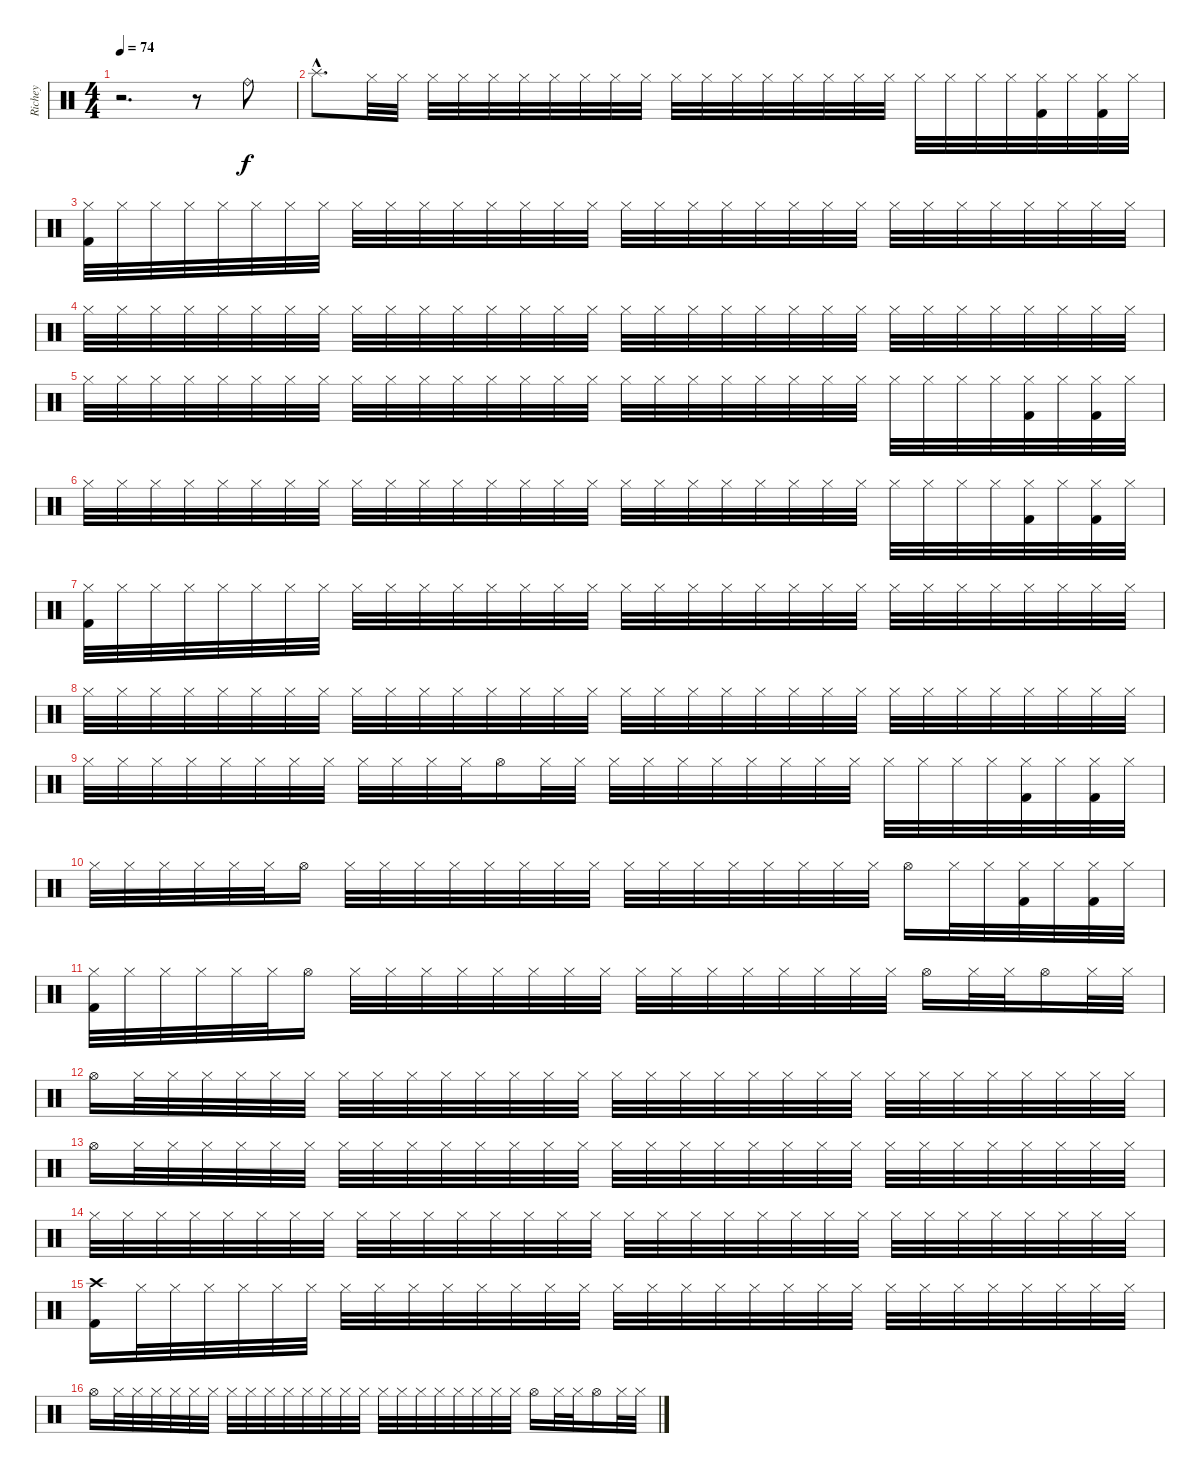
\track ("Richey" "Richey") {instrument percussion}
\staff {score}
\articulation defaults
\ts (4 4)
\tempo 74
\tempo 88
\tempo 74
\clef neutral
\ks c
r.2{d dy f} r.8 "Ride (bell)".8 |
"Splash (hit)"{hac}.8{d} "Hi-Hat (closed)".32 "Hi-Hat (closed)".32 "Hi-Hat (closed)".32 "Hi-Hat (closed)".32 "Hi-Hat (closed)".32 "Hi-Hat (closed)".32 "Hi-Hat (closed)".32 "Hi-Hat (closed)".32 "Hi-Hat (closed)".32 "Hi-Hat (closed)".32 "Hi-Hat (closed)".32 "Hi-Hat (closed)".32 "Hi-Hat (closed)".32 "Hi-Hat (closed)".32 "Hi-Hat (closed)".32 "Hi-Hat (closed)".32 "Hi-Hat (closed)".32 "Hi-Hat (closed)".32 "Hi-Hat (closed)".32 "Hi-Hat (closed)".32 "Hi-Hat (closed)".32 "Hi-Hat (closed)".32 ("Hi-Hat (closed)" "Kick (hit) 2").32 "Hi-Hat (closed)".32 ("Hi-Hat (closed)" "Kick (hit) 2").32 "Hi-Hat (closed)".32 |
("Hi-Hat (closed)" "Kick (hit) 2").32 "Hi-Hat (closed)".32 "Hi-Hat (closed)".32 "Hi-Hat (closed)".32 "Hi-Hat (closed)".32 "Hi-Hat (closed)".32 "Hi-Hat (closed)".32 "Hi-Hat (closed)".32 "Hi-Hat (closed)".32 "Hi-Hat (closed)".32 "Hi-Hat (closed)".32 "Hi-Hat (closed)".32 "Hi-Hat (closed)".32 "Hi-Hat (closed)".32 "Hi-Hat (closed)".32 "Hi-Hat (closed)".32 "Hi-Hat (closed)".32 "Hi-Hat (closed)".32 "Hi-Hat (closed)".32 "Hi-Hat (closed)".32 "Hi-Hat (closed)".32 "Hi-Hat (closed)".32 "Hi-Hat (closed)".32 "Hi-Hat (closed)".32 "Hi-Hat (closed)".32 "Hi-Hat (closed)".32 "Hi-Hat (closed)".32 "Hi-Hat (closed)".32 "Hi-Hat (closed)".32 "Hi-Hat (closed)".32 "Hi-Hat (closed)".32 "Hi-Hat (closed)".32 |
"Hi-Hat (closed)".32 "Hi-Hat (closed)".32 "Hi-Hat (closed)".32 "Hi-Hat (closed)".32 "Hi-Hat (closed)".32 "Hi-Hat (closed)".32 "Hi-Hat (closed)".32 "Hi-Hat (closed)".32 "Hi-Hat (closed)".32 "Hi-Hat (closed)".32 "Hi-Hat (closed)".32 "Hi-Hat (closed)".32 "Hi-Hat (closed)".32 "Hi-Hat (closed)".32 "Hi-Hat (closed)".32 "Hi-Hat (closed)".32 "Hi-Hat (closed)".32 "Hi-Hat (closed)".32 "Hi-Hat (closed)".32 "Hi-Hat (closed)".32 "Hi-Hat (closed)".32 "Hi-Hat (closed)".32 "Hi-Hat (closed)".32 "Hi-Hat (closed)".32 "Hi-Hat (closed)".32 "Hi-Hat (closed)".32 "Hi-Hat (closed)".32 "Hi-Hat (closed)".32 "Hi-Hat (closed)".32 "Hi-Hat (closed)".32 "Hi-Hat (closed)".32 "Hi-Hat (closed)".32 |
"Hi-Hat (closed)".32 "Hi-Hat (closed)".32 "Hi-Hat (closed)".32 "Hi-Hat (closed)".32 "Hi-Hat (closed)".32 "Hi-Hat (closed)".32 "Hi-Hat (closed)".32 "Hi-Hat (closed)".32 "Hi-Hat (closed)".32 "Hi-Hat (closed)".32 "Hi-Hat (closed)".32 "Hi-Hat (closed)".32 "Hi-Hat (closed)".32 "Hi-Hat (closed)".32 "Hi-Hat (closed)".32 "Hi-Hat (closed)".32 "Hi-Hat (closed)".32 "Hi-Hat (closed)".32 "Hi-Hat (closed)".32 "Hi-Hat (closed)".32 "Hi-Hat (closed)".32 "Hi-Hat (closed)".32 "Hi-Hat (closed)".32 "Hi-Hat (closed)".32 "Hi-Hat (closed)".32 "Hi-Hat (closed)".32 "Hi-Hat (closed)".32 "Hi-Hat (closed)".32 ("Hi-Hat (closed)" "Kick (hit) 2").32 "Hi-Hat (closed)".32 ("Hi-Hat (closed)" "Kick (hit) 2").32 "Hi-Hat (closed)".32 |
"Hi-Hat (closed)".32 "Hi-Hat (closed)".32 "Hi-Hat (closed)".32 "Hi-Hat (closed)".32 "Hi-Hat (closed)".32 "Hi-Hat (closed)".32 "Hi-Hat (closed)".32 "Hi-Hat (closed)".32 "Hi-Hat (closed)".32 "Hi-Hat (closed)".32 "Hi-Hat (closed)".32 "Hi-Hat (closed)".32 "Hi-Hat (closed)".32 "Hi-Hat (closed)".32 "Hi-Hat (closed)".32 "Hi-Hat (closed)".32 "Hi-Hat (closed)".32 "Hi-Hat (closed)".32 "Hi-Hat (closed)".32 "Hi-Hat (closed)".32 "Hi-Hat (closed)".32 "Hi-Hat (closed)".32 "Hi-Hat (closed)".32 "Hi-Hat (closed)".32 "Hi-Hat (closed)".32 "Hi-Hat (closed)".32 "Hi-Hat (closed)".32 "Hi-Hat (closed)".32 ("Hi-Hat (closed)" "Kick (hit) 2").32 "Hi-Hat (closed)".32 ("Hi-Hat (closed)" "Kick (hit) 2").32 "Hi-Hat (closed)".32 |
("Hi-Hat (closed)" "Kick (hit) 2").32 "Hi-Hat (closed)".32 "Hi-Hat (closed)".32 "Hi-Hat (closed)".32 "Hi-Hat (closed)".32 "Hi-Hat (closed)".32 "Hi-Hat (closed)".32 "Hi-Hat (closed)".32 "Hi-Hat (closed)".32 "Hi-Hat (closed)".32 "Hi-Hat (closed)".32 "Hi-Hat (closed)".32 "Hi-Hat (closed)".32 "Hi-Hat (closed)".32 "Hi-Hat (closed)".32 "Hi-Hat (closed)".32 "Hi-Hat (closed)".32 "Hi-Hat (closed)".32 "Hi-Hat (closed)".32 "Hi-Hat (closed)".32 "Hi-Hat (closed)".32 "Hi-Hat (closed)".32 "Hi-Hat (closed)".32 "Hi-Hat (closed)".32 "Hi-Hat (closed)".32 "Hi-Hat (closed)".32 "Hi-Hat (closed)".32 "Hi-Hat (closed)".32 "Hi-Hat (closed)".32 "Hi-Hat (closed)".32 "Hi-Hat (closed)".32 "Hi-Hat (closed)".32 |
"Hi-Hat (closed)".32 "Hi-Hat (closed)".32 "Hi-Hat (closed)".32 "Hi-Hat (closed)".32 "Hi-Hat (closed)".32 "Hi-Hat (closed)".32 "Hi-Hat (closed)".32 "Hi-Hat (closed)".32 "Hi-Hat (closed)".32 "Hi-Hat (closed)".32 "Hi-Hat (closed)".32 "Hi-Hat (closed)".32 "Hi-Hat (closed)".32 "Hi-Hat (closed)".32 "Hi-Hat (closed)".32 "Hi-Hat (closed)".32 "Hi-Hat (closed)".32 "Hi-Hat (closed)".32 "Hi-Hat (closed)".32 "Hi-Hat (closed)".32 "Hi-Hat (closed)".32 "Hi-Hat (closed)".32 "Hi-Hat (closed)".32 "Hi-Hat (closed)".32 "Hi-Hat (closed)".32 "Hi-Hat (closed)".32 "Hi-Hat (closed)".32 "Hi-Hat (closed)".32 "Hi-Hat (closed)".32 "Hi-Hat (closed)".32 "Hi-Hat (closed)".32 "Hi-Hat (closed)".32 |
"Hi-Hat (closed)".32 "Hi-Hat (closed)".32 "Hi-Hat (closed)".32 "Hi-Hat (closed)".32 "Hi-Hat (closed)".32 "Hi-Hat (closed)".32 "Hi-Hat (closed)".32 "Hi-Hat (closed)".32 "Hi-Hat (closed)".32 "Hi-Hat (closed)".32 "Hi-Hat (closed)".32 "Hi-Hat (closed)".32 "Hi-Hat (open)".16 "Hi-Hat (closed)".32 "Hi-Hat (closed)".32 "Hi-Hat (closed)".32 "Hi-Hat (closed)".32 "Hi-Hat (closed)".32 "Hi-Hat (closed)".32 "Hi-Hat (closed)".32 "Hi-Hat (closed)".32 "Hi-Hat (closed)".32 "Hi-Hat (closed)".32 "Hi-Hat (closed)".32 "Hi-Hat (closed)".32 "Hi-Hat (closed)".32 "Hi-Hat (closed)".32 ("Hi-Hat (closed)" "Kick (hit) 2").32 "Hi-Hat (closed)".32 ("Hi-Hat (closed)" "Kick (hit) 2").32 "Hi-Hat (closed)".32 |
"Hi-Hat (closed)".32 "Hi-Hat (closed)".32 "Hi-Hat (closed)".32 "Hi-Hat (closed)".32 "Hi-Hat (closed)".32 "Hi-Hat (closed)".32 "Hi-Hat (open)".16 "Hi-Hat (closed)".32 "Hi-Hat (closed)".32 "Hi-Hat (closed)".32 "Hi-Hat (closed)".32 "Hi-Hat (closed)".32 "Hi-Hat (closed)".32 "Hi-Hat (closed)".32 "Hi-Hat (closed)".32 "Hi-Hat (closed)".32 "Hi-Hat (closed)".32 "Hi-Hat (closed)".32 "Hi-Hat (closed)".32 "Hi-Hat (closed)".32 "Hi-Hat (closed)".32 "Hi-Hat (closed)".32 "Hi-Hat (closed)".32 "Hi-Hat (open)".16 "Hi-Hat (closed)".32 "Hi-Hat (closed)".32 ("Hi-Hat (closed)" "Kick (hit) 2").32 "Hi-Hat (closed)".32 ("Hi-Hat (closed)" "Kick (hit) 2").32 "Hi-Hat (closed)".32 |
("Hi-Hat (closed)" "Kick (hit) 2").32 "Hi-Hat (closed)".32 "Hi-Hat (closed)".32 "Hi-Hat (closed)".32 "Hi-Hat (closed)".32 "Hi-Hat (closed)".32 "Hi-Hat (open)".16 "Hi-Hat (closed)".32 "Hi-Hat (closed)".32 "Hi-Hat (closed)".32 "Hi-Hat (closed)".32 "Hi-Hat (closed)".32 "Hi-Hat (closed)".32 "Hi-Hat (closed)".32 "Hi-Hat (closed)".32 "Hi-Hat (closed)".32 "Hi-Hat (closed)".32 "Hi-Hat (closed)".32 "Hi-Hat (closed)".32 "Hi-Hat (closed)".32 "Hi-Hat (closed)".32 "Hi-Hat (closed)".32 "Hi-Hat (closed)".32 "Hi-Hat (open)".16 "Hi-Hat (closed)".32 "Hi-Hat (closed)".32 "Hi-Hat (open)".16 "Hi-Hat (closed)".32 "Hi-Hat (closed)".32 |
"Hi-Hat (open)".16 "Hi-Hat (closed)".32 "Hi-Hat (closed)".32 "Hi-Hat (closed)".32 "Hi-Hat (closed)".32 "Hi-Hat (closed)".32 "Hi-Hat (closed)".32 "Hi-Hat (closed)".32 "Hi-Hat (closed)".32 "Hi-Hat (closed)".32 "Hi-Hat (closed)".32 "Hi-Hat (closed)".32 "Hi-Hat (closed)".32 "Hi-Hat (closed)".32 "Hi-Hat (closed)".32 "Hi-Hat (closed)".32 "Hi-Hat (closed)".32 "Hi-Hat (closed)".32 "Hi-Hat (closed)".32 "Hi-Hat (closed)".32 "Hi-Hat (closed)".32 "Hi-Hat (closed)".32 "Hi-Hat (closed)".32 "Hi-Hat (closed)".32 "Hi-Hat (closed)".32 "Hi-Hat (closed)".32 "Hi-Hat (closed)".32 "Hi-Hat (closed)".32 "Hi-Hat (closed)".32 "Hi-Hat (closed)".32 "Hi-Hat (closed)".32 |
"Hi-Hat (open)".16 "Hi-Hat (closed)".32 "Hi-Hat (closed)".32 "Hi-Hat (closed)".32 "Hi-Hat (closed)".32 "Hi-Hat (closed)".32 "Hi-Hat (closed)".32 "Hi-Hat (closed)".32 "Hi-Hat (closed)".32 "Hi-Hat (closed)".32 "Hi-Hat (closed)".32 "Hi-Hat (closed)".32 "Hi-Hat (closed)".32 "Hi-Hat (closed)".32 "Hi-Hat (closed)".32 "Hi-Hat (closed)".32 "Hi-Hat (closed)".32 "Hi-Hat (closed)".32 "Hi-Hat (closed)".32 "Hi-Hat (closed)".32 "Hi-Hat (closed)".32 "Hi-Hat (closed)".32 "Hi-Hat (closed)".32 "Hi-Hat (closed)".32 "Hi-Hat (closed)".32 "Hi-Hat (closed)".32 "Hi-Hat (closed)".32 "Hi-Hat (closed)".32 "Hi-Hat (closed)".32 "Hi-Hat (closed)".32 "Hi-Hat (closed)".32 |
"Hi-Hat (closed)".32 "Hi-Hat (closed)".32 "Hi-Hat (closed)".32 "Hi-Hat (closed)".32 "Hi-Hat (closed)".32 "Hi-Hat (closed)".32 "Hi-Hat (closed)".32 "Hi-Hat (closed)".32 "Hi-Hat (closed)".32 "Hi-Hat (closed)".32 "Hi-Hat (closed)".32 "Hi-Hat (closed)".32 "Hi-Hat (closed)".32 "Hi-Hat (closed)".32 "Hi-Hat (closed)".32 "Hi-Hat (closed)".32 "Hi-Hat (closed)".32 "Hi-Hat (closed)".32 "Hi-Hat (closed)".32 "Hi-Hat (closed)".32 "Hi-Hat (closed)".32 "Hi-Hat (closed)".32 "Hi-Hat (closed)".32 "Hi-Hat (closed)".32 "Hi-Hat (closed)".32 "Hi-Hat (closed)".32 "Hi-Hat (closed)".32 "Hi-Hat (closed)".32 "Hi-Hat (closed)".32 "Hi-Hat (closed)".32 "Hi-Hat (closed)".32 "Hi-Hat (closed)".32 |
("Crash high (hit)" "Kick (hit) 2").16 "Hi-Hat (closed)".32 "Hi-Hat (closed)".32 "Hi-Hat (closed)".32 "Hi-Hat (closed)".32 "Hi-Hat (closed)".32 "Hi-Hat (closed)".32 "Hi-Hat (closed)".32 "Hi-Hat (closed)".32 "Hi-Hat (closed)".32 "Hi-Hat (closed)".32 "Hi-Hat (closed)".32 "Hi-Hat (closed)".32 "Hi-Hat (closed)".32 "Hi-Hat (closed)".32 "Hi-Hat (closed)".32 "Hi-Hat (closed)".32 "Hi-Hat (closed)".32 "Hi-Hat (closed)".32 "Hi-Hat (closed)".32 "Hi-Hat (closed)".32 "Hi-Hat (closed)".32 "Hi-Hat (closed)".32 "Hi-Hat (closed)".32 "Hi-Hat (closed)".32 "Hi-Hat (closed)".32 "Hi-Hat (closed)".32 "Hi-Hat (closed)".32 "Hi-Hat (closed)".32 "Hi-Hat (closed)".32 "Hi-Hat (closed)".32 |
"Hi-Hat (open)".16 "Hi-Hat (closed)".32 "Hi-Hat (closed)".32 "Hi-Hat (closed)".32 "Hi-Hat (closed)".32 "Hi-Hat (closed)".32 "Hi-Hat (closed)".32 "Hi-Hat (closed)".32 "Hi-Hat (closed)".32 "Hi-Hat (closed)".32 "Hi-Hat (closed)".32 "Hi-Hat (closed)".32 "Hi-Hat (closed)".32 "Hi-Hat (closed)".32 "Hi-Hat (closed)".32 "Hi-Hat (closed)".32 "Hi-Hat (closed)".32 "Hi-Hat (closed)".32 "Hi-Hat (closed)".32 "Hi-Hat (closed)".32 "Hi-Hat (closed)".32 "Hi-Hat (closed)".32 "Hi-Hat (closed)".32 "Hi-Hat (open)".16 "Hi-Hat (closed)".32 "Hi-Hat (closed)".32 "Hi-Hat (open)".16 "Hi-Hat (closed)".32 "Hi-Hat (closed)".32
